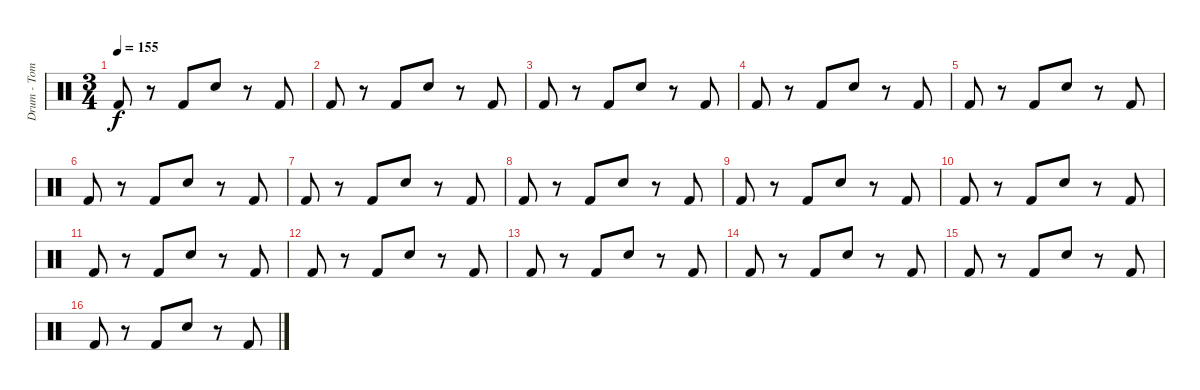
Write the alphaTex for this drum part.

\track ("Drum - Tom" "Drum - Tom") {instrument percussion}
\staff {score}
\articulation defaults
\ts (3 4)
\tempo 155
\clef neutral
\ks c "Kick (hit) 2".8{dy f}
r.8 "Kick (hit) 2".8 "Electric Snare (hit)".8 r.8 "Kick (hit) 2".8 |
"Kick (hit) 2".8 r.8 "Kick (hit) 2".8 "Electric Snare (hit)".8 r.8 "Kick (hit) 2".8 |
"Kick (hit) 2".8 r.8 "Kick (hit) 2".8 "Electric Snare (hit)".8 r.8 "Kick (hit) 2".8 |
"Kick (hit) 2".8 r.8 "Kick (hit) 2".8 "Electric Snare (hit)".8 r.8 "Kick (hit) 2".8 |
"Kick (hit) 2".8 r.8 "Kick (hit) 2".8 "Electric Snare (hit)".8 r.8 "Kick (hit) 2".8 |
"Kick (hit) 2".8 r.8 "Kick (hit) 2".8 "Electric Snare (hit)".8 r.8 "Kick (hit) 2".8 |
"Kick (hit) 2".8 r.8 "Kick (hit) 2".8 "Electric Snare (hit)".8 r.8 "Kick (hit) 2".8 |
"Kick (hit) 2".8 r.8 "Kick (hit) 2".8 "Electric Snare (hit)".8 r.8 "Kick (hit) 2".8 |
"Kick (hit) 2".8 r.8 "Kick (hit) 2".8 "Electric Snare (hit)".8 r.8 "Kick (hit) 2".8 |
"Kick (hit) 2".8 r.8 "Kick (hit) 2".8 "Electric Snare (hit)".8 r.8 "Kick (hit) 2".8 |
"Kick (hit) 2".8 r.8 "Kick (hit) 2".8 "Electric Snare (hit)".8 r.8 "Kick (hit) 2".8 |
"Kick (hit) 2".8 r.8 "Kick (hit) 2".8 "Electric Snare (hit)".8 r.8 "Kick (hit) 2".8 |
"Kick (hit) 2".8 r.8 "Kick (hit) 2".8 "Electric Snare (hit)".8 r.8 "Kick (hit) 2".8 |
"Kick (hit) 2".8 r.8 "Kick (hit) 2".8 "Electric Snare (hit)".8 r.8 "Kick (hit) 2".8 |
"Kick (hit) 2".8 r.8 "Kick (hit) 2".8 "Electric Snare (hit)".8 r.8 "Kick (hit) 2".8 |
"Kick (hit) 2".8 r.8 "Kick (hit) 2".8 "Electric Snare (hit)".8 r.8 "Kick (hit) 2".8
